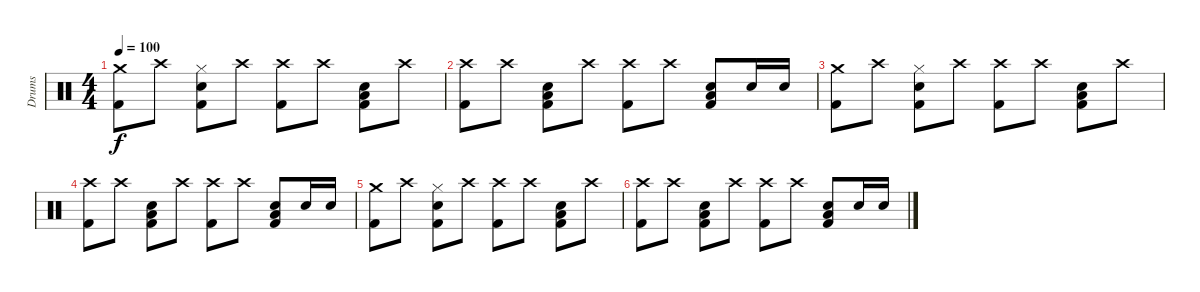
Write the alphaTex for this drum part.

\track ("Drums" "Drums") {instrument percussion}
\staff {score}
\articulation defaults
\ts (4 4)
\tempo 100
\clef neutral
\ks c
("Kick (hit) 2" "Crash medium (hit)").8{dy f volume 8} "Crash high (hit)".8 ("Kick (hit) 2" "Snare (hit) 2" "Hi-Hat (closed)").8 "Crash high (hit)".8 ("Crash high (hit)" "Kick (hit) 2").8 "Crash high (hit)".8 ("Kick (hit) 2" "Low Floor Tom (hit)" "Snare (hit) 2").8 "Crash high (hit)".8 |
("Crash high (hit)" "Kick (hit) 2").8 "Crash high (hit)".8 ("Kick (hit) 2" "Low Floor Tom (hit)" "Snare (hit) 2").8 "Crash high (hit)".8 ("Kick (hit) 2" "Crash high (hit)").8 "Crash high (hit)".8 ("Kick (hit) 2" "Snare (hit) 2" "Low Floor Tom (hit)").8 "Snare (hit) 2".16 "Snare (hit) 2".16 |
("Kick (hit) 2" "Crash medium (hit)").8{volume 4} "Crash high (hit)".8 ("Kick (hit) 2" "Snare (hit) 2" "Hi-Hat (closed)").8 "Crash high (hit)".8 ("Crash high (hit)" "Kick (hit) 2").8 "Crash high (hit)".8 ("Kick (hit) 2" "Low Floor Tom (hit)" "Snare (hit) 2").8 "Crash high (hit)".8 |
("Crash high (hit)" "Kick (hit) 2").8 "Crash high (hit)".8 ("Kick (hit) 2" "Low Floor Tom (hit)" "Snare (hit) 2").8 "Crash high (hit)".8 ("Kick (hit) 2" "Crash high (hit)").8 "Crash high (hit)".8 ("Kick (hit) 2" "Snare (hit) 2" "Low Floor Tom (hit)").8 "Snare (hit) 2".16 "Snare (hit) 2".16 |
("Kick (hit) 2" "Crash medium (hit)").8{volume 0} "Crash high (hit)".8 ("Kick (hit) 2" "Snare (hit) 2" "Hi-Hat (closed)").8 "Crash high (hit)".8 ("Crash high (hit)" "Kick (hit) 2").8 "Crash high (hit)".8 ("Kick (hit) 2" "Low Floor Tom (hit)" "Snare (hit) 2").8 "Crash high (hit)".8 |
("Crash high (hit)" "Kick (hit) 2").8 "Crash high (hit)".8 ("Kick (hit) 2" "Low Floor Tom (hit)" "Snare (hit) 2").8 "Crash high (hit)".8 ("Kick (hit) 2" "Crash high (hit)").8 "Crash high (hit)".8 ("Kick (hit) 2" "Snare (hit) 2" "Low Floor Tom (hit)").8 "Snare (hit) 2".16 "Snare (hit) 2".16
